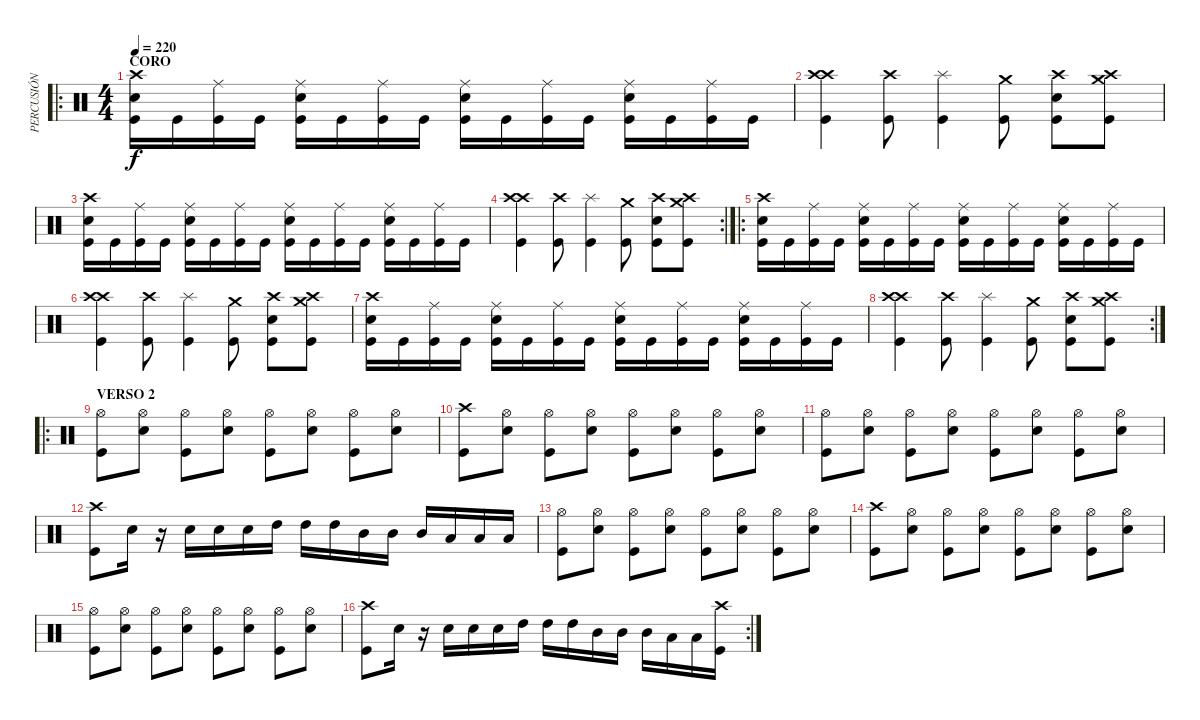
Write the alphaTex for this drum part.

\track ("PERCUSIÓN" "PERCUSIÓN") {instrument percussion}
\staff {score}
\articulation defaults
\ro
\ts (4 4)
\section ("" "CORO")
\tempo 220
\clef neutral
\ks c
("Crash high (hit)" "Snare (hit) 2" "Kick (hit)").16{dy f} "Kick (hit)".16 ("Ride (middle)" "Kick (hit)").16 "Kick (hit)".16 ("Ride (middle)" "Snare (hit) 2" "Kick (hit)").16 "Kick (hit)".16 ("Ride (middle)" "Kick (hit)").16 "Kick (hit)".16 ("Ride (middle)" "Snare (hit) 2" "Kick (hit)").16 "Kick (hit)".16 ("Ride (middle)" "Kick (hit)").16 "Kick (hit)".16 ("Ride (middle)" "Snare (hit) 2" "Kick (hit)").16 "Kick (hit)".16 ("Ride (middle)" "Kick (hit)").16 "Kick (hit)".16 |
("Crash high (hit)" "Crash high (hit)" "Kick (hit)").4 ("Crash high (hit)" "Kick (hit)").8 ("Splash (hit)" "Kick (hit)").4 ("Crash medium (hit)" "Kick (hit)").8 ("Crash high (hit)" "Snare (hit) 2" "Kick (hit)").8 ("Crash medium (hit)" "Crash high (hit)" "Kick (hit)").8 |
("Crash high (hit)" "Snare (hit) 2" "Kick (hit)").16 "Kick (hit)".16 ("Ride (middle)" "Kick (hit)").16 "Kick (hit)".16 ("Ride (middle)" "Snare (hit) 2" "Kick (hit)").16 "Kick (hit)".16 ("Ride (middle)" "Kick (hit)").16 "Kick (hit)".16 ("Ride (middle)" "Snare (hit) 2" "Kick (hit)").16 "Kick (hit)".16 ("Ride (middle)" "Kick (hit)").16 "Kick (hit)".16 ("Ride (middle)" "Snare (hit) 2" "Kick (hit)").16 "Kick (hit)".16 ("Ride (middle)" "Kick (hit)").16 "Kick (hit)".16 |
\rc 2
("Crash high (hit)" "Crash high (hit)" "Kick (hit)").4 ("Crash high (hit)" "Kick (hit)").8 ("Splash (hit)" "Kick (hit)").4 ("Crash medium (hit)" "Kick (hit)").8 ("Crash high (hit)" "Snare (hit) 2" "Kick (hit)").8 ("Crash medium (hit)" "Crash high (hit)" "Kick (hit)").8 |
\ro
("Crash high (hit)" "Snare (hit) 2" "Kick (hit)").16 "Kick (hit)".16 ("Ride (middle)" "Kick (hit)").16 "Kick (hit)".16 ("Ride (middle)" "Snare (hit) 2" "Kick (hit)").16 "Kick (hit)".16 ("Ride (middle)" "Kick (hit)").16 "Kick (hit)".16 ("Ride (middle)" "Snare (hit) 2" "Kick (hit)").16 "Kick (hit)".16 ("Ride (middle)" "Kick (hit)").16 "Kick (hit)".16 ("Ride (middle)" "Snare (hit) 2" "Kick (hit)").16 "Kick (hit)".16 ("Ride (middle)" "Kick (hit)").16 "Kick (hit)".16 |
("Crash high (hit)" "Crash high (hit)" "Kick (hit)").4 ("Crash high (hit)" "Kick (hit)").8 ("Splash (hit)" "Kick (hit)").4 ("Crash medium (hit)" "Kick (hit)").8 ("Crash high (hit)" "Snare (hit) 2" "Kick (hit)").8 ("Crash medium (hit)" "Crash high (hit)" "Kick (hit)").8 |
("Crash high (hit)" "Snare (hit) 2" "Kick (hit)").16 "Kick (hit)".16 ("Ride (middle)" "Kick (hit)").16 "Kick (hit)".16 ("Ride (middle)" "Snare (hit) 2" "Kick (hit)").16 "Kick (hit)".16 ("Ride (middle)" "Kick (hit)").16 "Kick (hit)".16 ("Ride (middle)" "Snare (hit) 2" "Kick (hit)").16 "Kick (hit)".16 ("Ride (middle)" "Kick (hit)").16 "Kick (hit)".16 ("Ride (middle)" "Snare (hit) 2" "Kick (hit)").16 "Kick (hit)".16 ("Ride (middle)" "Kick (hit)").16 "Kick (hit)".16 |
\rc 2
("Crash high (hit)" "Crash high (hit)" "Kick (hit)").4 ("Crash high (hit)" "Kick (hit)").8 ("Splash (hit)" "Kick (hit)").4 ("Crash medium (hit)" "Kick (hit)").8 ("Crash high (hit)" "Snare (hit) 2" "Kick (hit)").8 ("Crash medium (hit)" "Crash high (hit)" "Kick (hit)").8 |
\ro
\section ("" "VERSO 2")
("Hi-Hat (open)" "Kick (hit)").8 ("Hi-Hat (open)" "Snare (hit) 2").8 ("Hi-Hat (open)" "Kick (hit)").8 ("Hi-Hat (open)" "Snare (hit) 2").8 ("Hi-Hat (open)" "Kick (hit)").8 ("Hi-Hat (open)" "Snare (hit) 2").8 ("Hi-Hat (open)" "Kick (hit)").8 ("Hi-Hat (open)" "Snare (hit) 2").8 |
("Crash high (hit)" "Kick (hit)").8 ("Hi-Hat (open)" "Snare (hit) 2").8 ("Hi-Hat (open)" "Kick (hit)").8 ("Hi-Hat (open)" "Snare (hit) 2").8 ("Hi-Hat (open)" "Kick (hit)").8 ("Hi-Hat (open)" "Snare (hit) 2").8 ("Hi-Hat (open)" "Kick (hit)").8 ("Hi-Hat (open)" "Snare (hit) 2").8 |
("Hi-Hat (open)" "Kick (hit)").8 ("Hi-Hat (open)" "Snare (hit) 2").8 ("Hi-Hat (open)" "Kick (hit)").8 ("Hi-Hat (open)" "Snare (hit) 2").8 ("Hi-Hat (open)" "Kick (hit)").8 ("Hi-Hat (open)" "Snare (hit) 2").8 ("Hi-Hat (open)" "Kick (hit)").8 ("Hi-Hat (open)" "Snare (hit) 2").8 |
("Crash high (hit)" "Kick (hit)").8 "Snare (hit) 2".16 r.16 "Snare (hit) 2".16 "Snare (hit) 2".16 "Snare (hit) 2".16 "High Tom (hit)".16 "High Tom (hit)".16 "High Tom (hit)".16 "Mid Tom (hit)".16 "Mid Tom (hit)".16 "Mid Tom (hit)".16 "Low Tom (hit)".16 "Low Tom (hit)".16 "Low Tom (hit)".16 |
("Hi-Hat (open)" "Kick (hit)").8 ("Hi-Hat (open)" "Snare (hit) 2").8 ("Hi-Hat (open)" "Kick (hit)").8 ("Hi-Hat (open)" "Snare (hit) 2").8 ("Hi-Hat (open)" "Kick (hit)").8 ("Hi-Hat (open)" "Snare (hit) 2").8 ("Hi-Hat (open)" "Kick (hit)").8 ("Hi-Hat (open)" "Snare (hit) 2").8 |
("Crash high (hit)" "Kick (hit)").8 ("Hi-Hat (open)" "Snare (hit) 2").8 ("Hi-Hat (open)" "Kick (hit)").8 ("Hi-Hat (open)" "Snare (hit) 2").8 ("Hi-Hat (open)" "Kick (hit)").8 ("Hi-Hat (open)" "Snare (hit) 2").8 ("Hi-Hat (open)" "Kick (hit)").8 ("Hi-Hat (open)" "Snare (hit) 2").8 |
("Hi-Hat (open)" "Kick (hit)").8 ("Hi-Hat (open)" "Snare (hit) 2").8 ("Hi-Hat (open)" "Kick (hit)").8 ("Hi-Hat (open)" "Snare (hit) 2").8 ("Hi-Hat (open)" "Kick (hit)").8 ("Hi-Hat (open)" "Snare (hit) 2").8 ("Hi-Hat (open)" "Kick (hit)").8 ("Hi-Hat (open)" "Snare (hit) 2").8 |
\rc 2
("Crash high (hit)" "Kick (hit)").8 "Snare (hit) 2".16 r.16 "Snare (hit) 2".16 "Snare (hit) 2".16 "Snare (hit) 2".16 "High Tom (hit)".16 "High Tom (hit)".16 "High Tom (hit)".16 "Mid Tom (hit)".16 "Mid Tom (hit)".16 "Mid Tom (hit)".16 "Low Tom (hit)".16 "Low Tom (hit)".16 ("Crash high (hit)" "Kick (hit)").16
